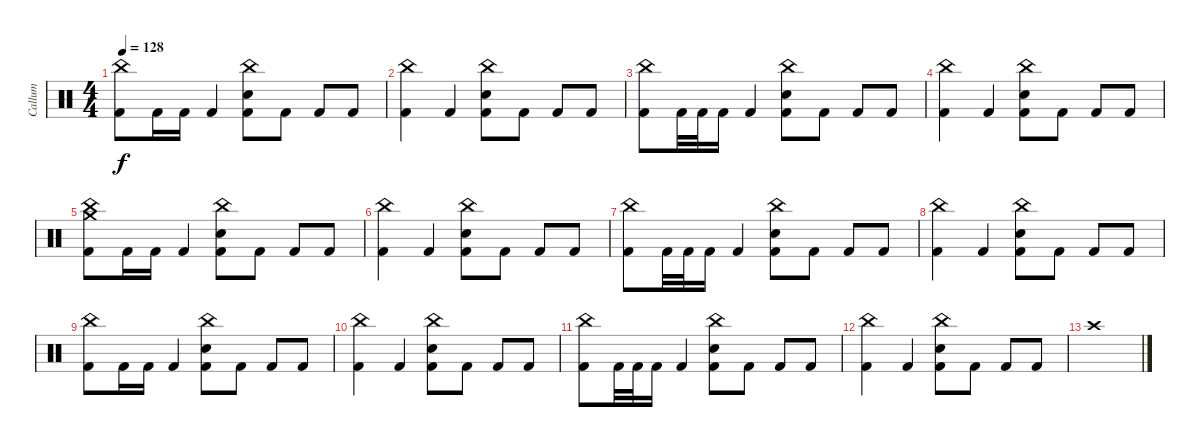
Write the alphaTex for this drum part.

\track ("Callum" "Callum") {instrument percussion}
\staff {score}
\articulation defaults
\ts (4 4)
\tempo 128
\clef neutral
\ks c
("China (hit)" "Kick (hit) 2").8{dy f} "Kick (hit) 2".16 "Kick (hit) 2".16 "Kick (hit) 2".4 ("China (hit)" "Electric Snare (hit)" "Kick (hit) 2").8 "Kick (hit) 2".8 "Kick (hit) 2".8 "Kick (hit) 2".8 |
("China (hit)" "Kick (hit) 2").4 "Kick (hit) 2".4 ("China (hit)" "Electric Snare (hit)" "Kick (hit) 2").8 "Kick (hit) 2".8 "Kick (hit) 2".8 "Kick (hit) 2".8 |
("China (hit)" "Kick (hit) 2").8 "Kick (hit) 2".32 "Kick (hit) 2".32 "Kick (hit) 2".16 "Kick (hit) 2".4 ("China (hit)" "Electric Snare (hit)" "Kick (hit) 2").8 "Kick (hit) 2".8 "Kick (hit) 2".8 "Kick (hit) 2".8 |
("China (hit)" "Kick (hit) 2").4 "Kick (hit) 2".4 ("China (hit)" "Electric Snare (hit)" "Kick (hit) 2").8 "Kick (hit) 2".8 "Kick (hit) 2".8 "Kick (hit) 2".8 |
("Crash medium (hit)" "China (hit)" "Kick (hit) 2").8 "Kick (hit) 2".16 "Kick (hit) 2".16 "Kick (hit) 2".4 ("China (hit)" "Electric Snare (hit)" "Kick (hit) 2").8 "Kick (hit) 2".8 "Kick (hit) 2".8 "Kick (hit) 2".8 |
("China (hit)" "Kick (hit) 2").4 "Kick (hit) 2".4 ("China (hit)" "Electric Snare (hit)" "Kick (hit) 2").8 "Kick (hit) 2".8 "Kick (hit) 2".8 "Kick (hit) 2".8 |
("China (hit)" "Kick (hit) 2").8 "Kick (hit) 2".32 "Kick (hit) 2".32 "Kick (hit) 2".16 "Kick (hit) 2".4 ("China (hit)" "Electric Snare (hit)" "Kick (hit) 2").8 "Kick (hit) 2".8 "Kick (hit) 2".8 "Kick (hit) 2".8 |
("China (hit)" "Kick (hit) 2").4 "Kick (hit) 2".4 ("China (hit)" "Electric Snare (hit)" "Kick (hit) 2").8 "Kick (hit) 2".8 "Kick (hit) 2".8 "Kick (hit) 2".8 |
("China (hit)" "Kick (hit) 2").8 "Kick (hit) 2".16 "Kick (hit) 2".16 "Kick (hit) 2".4 ("China (hit)" "Electric Snare (hit)" "Kick (hit) 2").8 "Kick (hit) 2".8 "Kick (hit) 2".8 "Kick (hit) 2".8 |
("China (hit)" "Kick (hit) 2").4 "Kick (hit) 2".4 ("China (hit)" "Electric Snare (hit)" "Kick (hit) 2").8 "Kick (hit) 2".8 "Kick (hit) 2".8 "Kick (hit) 2".8 |
("China (hit)" "Kick (hit) 2").8 "Kick (hit) 2".32 "Kick (hit) 2".32 "Kick (hit) 2".16 "Kick (hit) 2".4 ("China (hit)" "Electric Snare (hit)" "Kick (hit) 2").8 "Kick (hit) 2".8 "Kick (hit) 2".8 "Kick (hit) 2".8 |
("China (hit)" "Kick (hit) 2").4 "Kick (hit) 2".4 ("China (hit)" "Electric Snare (hit)" "Kick (hit) 2").8 "Kick (hit) 2".8 "Kick (hit) 2".8 "Kick (hit) 2".8 |
"Crash high (hit)".1
